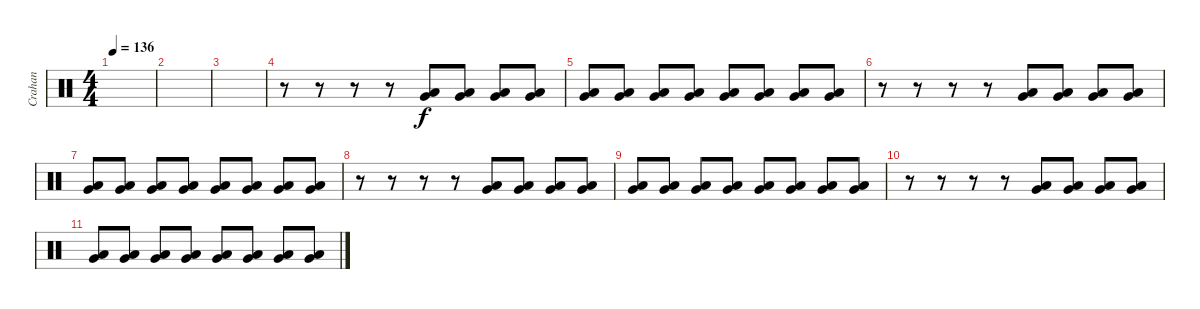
\track ("Crahan" "Crahan") {instrument percussion}
\staff {score}
\articulation defaults
\ts (4 4)
\tempo 136
\clef neutral
\ks c
|
|
|
r.8 r.8 r.8 r.8 ("Very Low Tom (hit)" "Low Floor Tom (hit)").8 ("Very Low Tom (hit)" "Low Floor Tom (hit)").8 ("Very Low Tom (hit)" "Low Floor Tom (hit)").8 ("Very Low Tom (hit)" "Low Floor Tom (hit)").8 |
("Very Low Tom (hit)" "Low Floor Tom (hit)").8 ("Very Low Tom (hit)" "Low Floor Tom (hit)").8 ("Very Low Tom (hit)" "Low Floor Tom (hit)").8 ("Very Low Tom (hit)" "Low Floor Tom (hit)").8 ("Very Low Tom (hit)" "Low Floor Tom (hit)").8 ("Very Low Tom (hit)" "Low Floor Tom (hit)").8 ("Very Low Tom (hit)" "Low Floor Tom (hit)").8 ("Very Low Tom (hit)" "Low Floor Tom (hit)").8 |
r.8 r.8 r.8 r.8 ("Very Low Tom (hit)" "Low Floor Tom (hit)").8 ("Very Low Tom (hit)" "Low Floor Tom (hit)").8 ("Very Low Tom (hit)" "Low Floor Tom (hit)").8 ("Very Low Tom (hit)" "Low Floor Tom (hit)").8 |
("Very Low Tom (hit)" "Low Floor Tom (hit)").8 ("Very Low Tom (hit)" "Low Floor Tom (hit)").8 ("Very Low Tom (hit)" "Low Floor Tom (hit)").8 ("Very Low Tom (hit)" "Low Floor Tom (hit)").8 ("Very Low Tom (hit)" "Low Floor Tom (hit)").8 ("Very Low Tom (hit)" "Low Floor Tom (hit)").8 ("Very Low Tom (hit)" "Low Floor Tom (hit)").8 ("Very Low Tom (hit)" "Low Floor Tom (hit)").8 |
r.8 r.8 r.8 r.8 ("Very Low Tom (hit)" "Low Floor Tom (hit)").8 ("Very Low Tom (hit)" "Low Floor Tom (hit)").8 ("Very Low Tom (hit)" "Low Floor Tom (hit)").8 ("Very Low Tom (hit)" "Low Floor Tom (hit)").8 |
("Very Low Tom (hit)" "Low Floor Tom (hit)").8 ("Very Low Tom (hit)" "Low Floor Tom (hit)").8 ("Very Low Tom (hit)" "Low Floor Tom (hit)").8 ("Very Low Tom (hit)" "Low Floor Tom (hit)").8 ("Very Low Tom (hit)" "Low Floor Tom (hit)").8 ("Very Low Tom (hit)" "Low Floor Tom (hit)").8 ("Very Low Tom (hit)" "Low Floor Tom (hit)").8 ("Very Low Tom (hit)" "Low Floor Tom (hit)").8 |
r.8 r.8 r.8 r.8 ("Very Low Tom (hit)" "Low Floor Tom (hit)").8 ("Very Low Tom (hit)" "Low Floor Tom (hit)").8 ("Very Low Tom (hit)" "Low Floor Tom (hit)").8 ("Very Low Tom (hit)" "Low Floor Tom (hit)").8 |
("Very Low Tom (hit)" "Low Floor Tom (hit)").8 ("Very Low Tom (hit)" "Low Floor Tom (hit)").8 ("Very Low Tom (hit)" "Low Floor Tom (hit)").8 ("Very Low Tom (hit)" "Low Floor Tom (hit)").8 ("Very Low Tom (hit)" "Low Floor Tom (hit)").8 ("Very Low Tom (hit)" "Low Floor Tom (hit)").8 ("Very Low Tom (hit)" "Low Floor Tom (hit)").8 ("Very Low Tom (hit)" "Low Floor Tom (hit)").8
